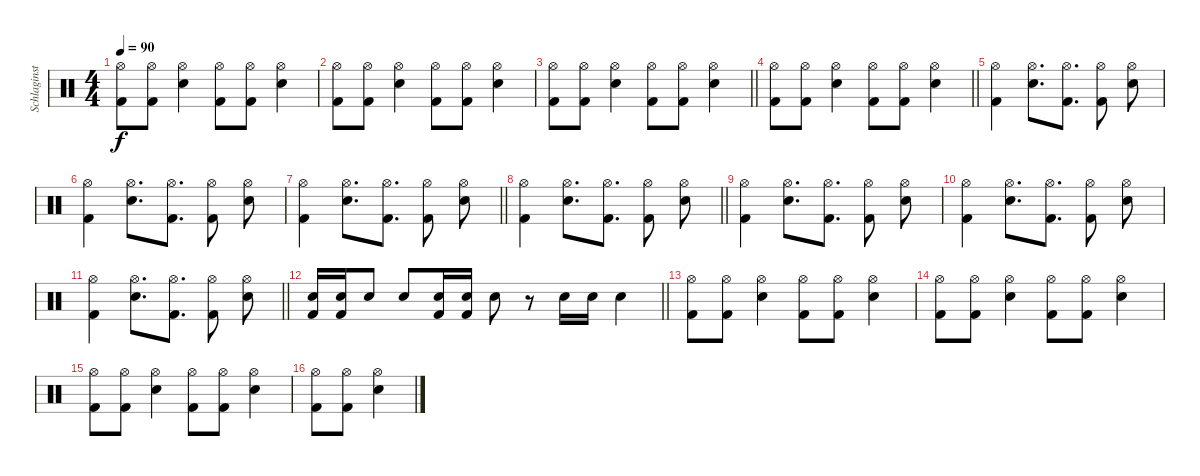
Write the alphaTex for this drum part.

\track ("Schlaginstrumente - Auswahl" "Schlaginst") {instrument percussion}
\staff {score}
\articulation defaults
\ts (4 4)
\tempo 90
\clef neutral
\ks c
("Kick (hit) 2" "Hi-Hat (open)").8{dy f} ("Kick (hit) 2" "Hi-Hat (open)").8 ("Snare (hit) 2" "Hi-Hat (open)").4 ("Kick (hit) 2" "Hi-Hat (open)").8 ("Kick (hit) 2" "Hi-Hat (open)").8 ("Snare (hit) 2" "Hi-Hat (open)").4 |
("Kick (hit) 2" "Hi-Hat (open)").8 ("Kick (hit) 2" "Hi-Hat (open)").8 ("Snare (hit) 2" "Hi-Hat (open)").4 ("Kick (hit) 2" "Hi-Hat (open)").8 ("Kick (hit) 2" "Hi-Hat (open)").8 ("Snare (hit) 2" "Hi-Hat (open)").4 |
\barLineRight lightlight
("Kick (hit) 2" "Hi-Hat (open)").8 ("Kick (hit) 2" "Hi-Hat (open)").8 ("Snare (hit) 2" "Hi-Hat (open)").4 ("Kick (hit) 2" "Hi-Hat (open)").8 ("Kick (hit) 2" "Hi-Hat (open)").8 ("Snare (hit) 2" "Hi-Hat (open)").4 |
\barLineRight lightlight
("Kick (hit) 2" "Hi-Hat (open)").8 ("Kick (hit) 2" "Hi-Hat (open)").8 ("Snare (hit) 2" "Hi-Hat (open)").4 ("Kick (hit) 2" "Hi-Hat (open)").8 ("Kick (hit) 2" "Hi-Hat (open)").8 ("Snare (hit) 2" "Hi-Hat (open)").4 |
("Kick (hit) 2" "Hi-Hat (open)").4 ("Snare (hit) 2" "Hi-Hat (open)").8{d} ("Kick (hit) 2" "Hi-Hat (open)").8{d} ("Kick (hit) 2" "Hi-Hat (open)").8 ("Snare (hit) 2" "Hi-Hat (open)").8 |
("Kick (hit) 2" "Hi-Hat (open)").4 ("Snare (hit) 2" "Hi-Hat (open)").8{d} ("Kick (hit) 2" "Hi-Hat (open)").8{d} ("Kick (hit) 2" "Hi-Hat (open)").8 ("Snare (hit) 2" "Hi-Hat (open)").8 |
\barLineRight lightlight
("Kick (hit) 2" "Hi-Hat (open)").4 ("Snare (hit) 2" "Hi-Hat (open)").8{d} ("Kick (hit) 2" "Hi-Hat (open)").8{d} ("Kick (hit) 2" "Hi-Hat (open)").8 ("Snare (hit) 2" "Hi-Hat (open)").8 |
\barLineRight lightlight
("Kick (hit) 2" "Hi-Hat (open)").4 ("Snare (hit) 2" "Hi-Hat (open)").8{d} ("Kick (hit) 2" "Hi-Hat (open)").8{d} ("Kick (hit) 2" "Hi-Hat (open)").8 ("Snare (hit) 2" "Hi-Hat (open)").8 |
("Kick (hit) 2" "Hi-Hat (open)").4 ("Snare (hit) 2" "Hi-Hat (open)").8{d} ("Kick (hit) 2" "Hi-Hat (open)").8{d} ("Kick (hit) 2" "Hi-Hat (open)").8 ("Snare (hit) 2" "Hi-Hat (open)").8 |
("Kick (hit) 2" "Hi-Hat (open)").4 ("Snare (hit) 2" "Hi-Hat (open)").8{d} ("Kick (hit) 2" "Hi-Hat (open)").8{d} ("Kick (hit) 2" "Hi-Hat (open)").8 ("Snare (hit) 2" "Hi-Hat (open)").8 |
\barLineRight lightlight
("Kick (hit) 2" "Hi-Hat (open)").4 ("Snare (hit) 2" "Hi-Hat (open)").8{d} ("Kick (hit) 2" "Hi-Hat (open)").8{d} ("Kick (hit) 2" "Hi-Hat (open)").8 ("Snare (hit) 2" "Hi-Hat (open)").8 |
\barLineRight lightlight
("Kick (hit) 2" "Snare (hit) 2").16 ("Kick (hit) 2" "Snare (hit) 2").16 "Snare (hit) 2".8 "Snare (hit) 2".8 ("Kick (hit) 2" "Snare (hit) 2").16 ("Kick (hit) 2" "Snare (hit) 2").16 "Snare (hit) 2".8 r.8 "Snare (hit) 2".16 "Snare (hit) 2".16 "Snare (hit) 2".4 |
("Kick (hit) 2" "Hi-Hat (open)").8 ("Kick (hit) 2" "Hi-Hat (open)").8 ("Snare (hit) 2" "Hi-Hat (open)").4 ("Kick (hit) 2" "Hi-Hat (open)").8 ("Kick (hit) 2" "Hi-Hat (open)").8 ("Snare (hit) 2" "Hi-Hat (open)").4 |
("Kick (hit) 2" "Hi-Hat (open)").8 ("Kick (hit) 2" "Hi-Hat (open)").8 ("Snare (hit) 2" "Hi-Hat (open)").4 ("Kick (hit) 2" "Hi-Hat (open)").8 ("Kick (hit) 2" "Hi-Hat (open)").8 ("Snare (hit) 2" "Hi-Hat (open)").4 |
("Kick (hit) 2" "Hi-Hat (open)").8 ("Kick (hit) 2" "Hi-Hat (open)").8 ("Snare (hit) 2" "Hi-Hat (open)").4 ("Kick (hit) 2" "Hi-Hat (open)").8 ("Kick (hit) 2" "Hi-Hat (open)").8 ("Snare (hit) 2" "Hi-Hat (open)").4 |
("Kick (hit) 2" "Hi-Hat (open)").8 ("Kick (hit) 2" "Hi-Hat (open)").8 ("Snare (hit) 2" "Hi-Hat (open)").4
